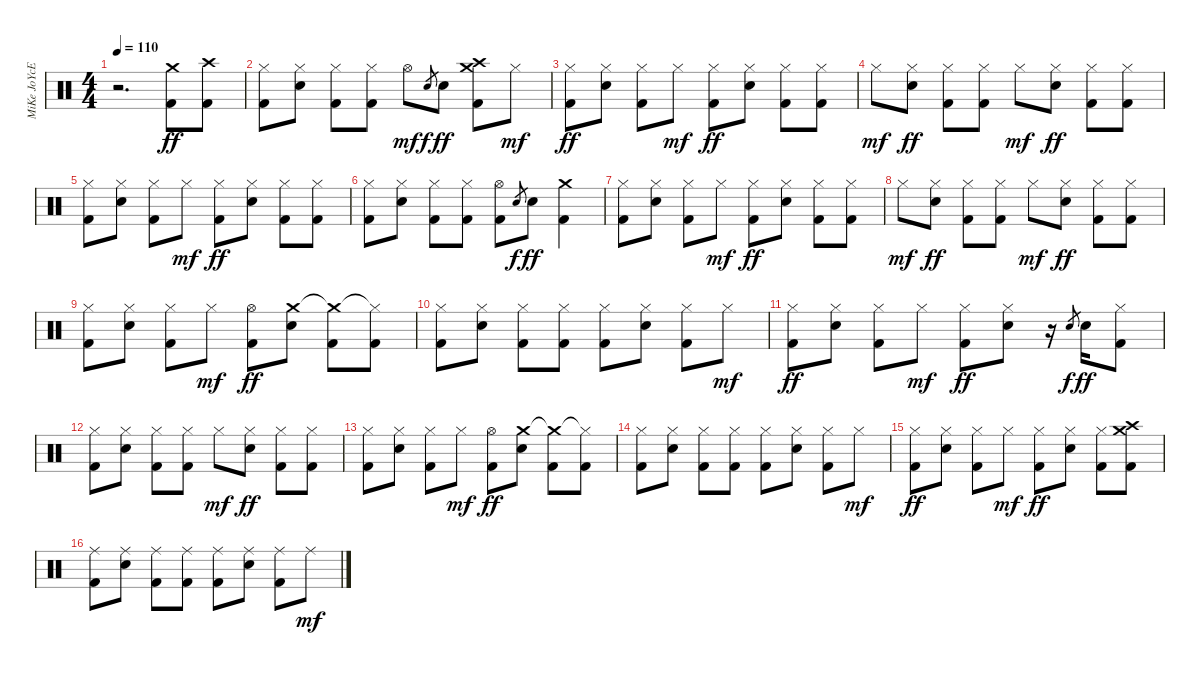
\track ("MiKe JoYcE" "MiKe JoYcE") {instrument percussion}
\staff {score}
\articulation defaults
\ts (4 4)
\tempo 110
\clef neutral
\ks c
r.2{d dy ff} ("Crash medium (hit)" "Kick (hit) 2").8 ("Crash high (hit)" "Kick (hit) 2").8 |
("Hi-Hat (closed)" "Kick (hit) 2").8 ("Hi-Hat (closed)" "Electric Snare (hit)").8 ("Hi-Hat (closed)" "Kick (hit) 2").8 ("Hi-Hat (closed)" "Kick (hit) 2").8 "Hi-Hat (open)".8{dy mf} "Electric Snare (hit)".8{gr dy f} "Electric Snare (hit)".8{dy ff} ("Crash medium (hit)" "Crash high (hit)" "Kick (hit) 2").8 "Hi-Hat (closed)".8{dy mf} |
("Hi-Hat (closed)" "Kick (hit) 2").8{dy ff} ("Hi-Hat (closed)" "Electric Snare (hit)").8 ("Hi-Hat (closed)" "Kick (hit) 2").8 "Hi-Hat (closed)".8{dy mf} ("Hi-Hat (closed)" "Kick (hit) 2").8{dy ff} ("Hi-Hat (closed)" "Electric Snare (hit)").8 ("Hi-Hat (closed)" "Kick (hit) 2").8 ("Hi-Hat (closed)" "Kick (hit) 2").8 |
"Hi-Hat (closed)".8{dy mf} ("Hi-Hat (closed)" "Electric Snare (hit)").8{dy ff} ("Hi-Hat (closed)" "Kick (hit) 2").8 ("Hi-Hat (closed)" "Kick (hit) 2").8 "Hi-Hat (closed)".8{dy mf} ("Hi-Hat (closed)" "Electric Snare (hit)").8{dy ff} ("Hi-Hat (closed)" "Kick (hit) 2").8 ("Hi-Hat (closed)" "Kick (hit) 2").8 |
("Hi-Hat (closed)" "Kick (hit) 2").8 ("Hi-Hat (closed)" "Electric Snare (hit)").8 ("Hi-Hat (closed)" "Kick (hit) 2").8 "Hi-Hat (closed)".8{dy mf} ("Hi-Hat (closed)" "Kick (hit) 2").8{dy ff} ("Hi-Hat (closed)" "Electric Snare (hit)").8 ("Hi-Hat (closed)" "Kick (hit) 2").8 ("Hi-Hat (closed)" "Kick (hit) 2").8 |
("Hi-Hat (closed)" "Kick (hit) 2").8 ("Hi-Hat (closed)" "Electric Snare (hit)").8 ("Hi-Hat (closed)" "Kick (hit) 2").8 ("Hi-Hat (closed)" "Kick (hit) 2").8 ("Hi-Hat (open)" "Kick (hit) 2").8 "Electric Snare (hit)".8{gr dy f} "Electric Snare (hit)".8{dy ff} ("Crash medium (hit)" "Kick (hit) 2").4 |
("Hi-Hat (closed)" "Kick (hit) 2").8 ("Hi-Hat (closed)" "Electric Snare (hit)").8 ("Hi-Hat (closed)" "Kick (hit) 2").8 "Hi-Hat (closed)".8{dy mf} ("Hi-Hat (closed)" "Kick (hit) 2").8{dy ff} ("Hi-Hat (closed)" "Electric Snare (hit)").8 ("Hi-Hat (closed)" "Kick (hit) 2").8 ("Hi-Hat (closed)" "Kick (hit) 2").8 |
"Hi-Hat (closed)".8{dy mf} ("Hi-Hat (closed)" "Electric Snare (hit)").8{dy ff} ("Hi-Hat (closed)" "Kick (hit) 2").8 ("Hi-Hat (closed)" "Kick (hit) 2").8 "Hi-Hat (closed)".8{dy mf} ("Hi-Hat (closed)" "Electric Snare (hit)").8{dy ff} ("Hi-Hat (closed)" "Kick (hit) 2").8 ("Hi-Hat (closed)" "Kick (hit) 2").8 |
("Hi-Hat (closed)" "Kick (hit) 2").8 ("Hi-Hat (closed)" "Electric Snare (hit)").8 ("Hi-Hat (closed)" "Kick (hit) 2").8 "Hi-Hat (closed)".8{dy mf} ("Hi-Hat (open)" "Kick (hit) 2").8{dy ff} ("Crash medium (hit)" "Electric Snare (hit)").8 ("Crash medium (hit)"{t} "Kick (hit) 2").8 ("Hi-Hat (closed)"{t} "Kick (hit) 2").8 |
("Hi-Hat (closed)" "Kick (hit) 2").8 ("Hi-Hat (closed)" "Electric Snare (hit)").8 ("Hi-Hat (closed)" "Kick (hit) 2").8 ("Hi-Hat (closed)" "Kick (hit) 2").8 ("Hi-Hat (closed)" "Kick (hit) 2").8 ("Hi-Hat (closed)" "Electric Snare (hit)").8 ("Hi-Hat (closed)" "Kick (hit) 2").8 "Hi-Hat (closed)".8{dy mf} |
("Hi-Hat (closed)" "Kick (hit) 2").8{dy ff} ("Hi-Hat (closed)" "Electric Snare (hit)").8 ("Hi-Hat (closed)" "Kick (hit) 2").8 "Hi-Hat (closed)".8{dy mf} ("Hi-Hat (closed)" "Kick (hit) 2").8{dy ff} ("Hi-Hat (closed)" "Electric Snare (hit)").8 r.16 "Electric Snare (hit)".8{gr dy f} "Electric Snare (hit)".16{dy ff} ("Hi-Hat (closed)" "Kick (hit) 2").8 |
("Hi-Hat (closed)" "Kick (hit) 2").8 ("Hi-Hat (closed)" "Electric Snare (hit)").8 ("Hi-Hat (closed)" "Kick (hit) 2").8 ("Hi-Hat (closed)" "Kick (hit) 2").8 "Hi-Hat (closed)".8{dy mf} ("Hi-Hat (closed)" "Electric Snare (hit)").8{dy ff} ("Hi-Hat (closed)" "Kick (hit) 2").8 ("Hi-Hat (closed)" "Kick (hit) 2").8 |
("Hi-Hat (closed)" "Kick (hit) 2").8 ("Hi-Hat (closed)" "Electric Snare (hit)").8 ("Hi-Hat (closed)" "Kick (hit) 2").8 "Hi-Hat (closed)".8{dy mf} ("Hi-Hat (open)" "Kick (hit) 2").8{dy ff} ("Crash medium (hit)" "Electric Snare (hit)").8 ("Crash medium (hit)"{t} "Kick (hit) 2").8 ("Hi-Hat (closed)"{t} "Kick (hit) 2").8 |
("Hi-Hat (closed)" "Kick (hit) 2").8 ("Hi-Hat (closed)" "Electric Snare (hit)").8 ("Hi-Hat (closed)" "Kick (hit) 2").8 ("Hi-Hat (closed)" "Kick (hit) 2").8 ("Hi-Hat (closed)" "Kick (hit) 2").8 ("Hi-Hat (closed)" "Electric Snare (hit)").8 ("Hi-Hat (closed)" "Kick (hit) 2").8 "Hi-Hat (closed)".8{dy mf} |
("Hi-Hat (closed)" "Kick (hit) 2").8{dy ff} ("Hi-Hat (closed)" "Electric Snare (hit)").8 ("Hi-Hat (closed)" "Kick (hit) 2").8 "Hi-Hat (closed)".8{dy mf} ("Hi-Hat (closed)" "Kick (hit) 2").8{dy ff} ("Hi-Hat (closed)" "Electric Snare (hit)").8 ("Hi-Hat (closed)" "Kick (hit) 2").8 ("Crash medium (hit)" "Crash high (hit)" "Kick (hit) 2").8 |
("Ride (middle)" "Kick (hit) 2").8 ("Ride (middle)" "Electric Snare (hit)").8 ("Ride (middle)" "Kick (hit) 2").8 ("Ride (middle)" "Kick (hit) 2").8 ("Ride (middle)" "Kick (hit) 2").8 ("Ride (middle)" "Electric Snare (hit)").8 ("Ride (middle)" "Kick (hit) 2").8 "Ride (middle)".8{dy mf}
